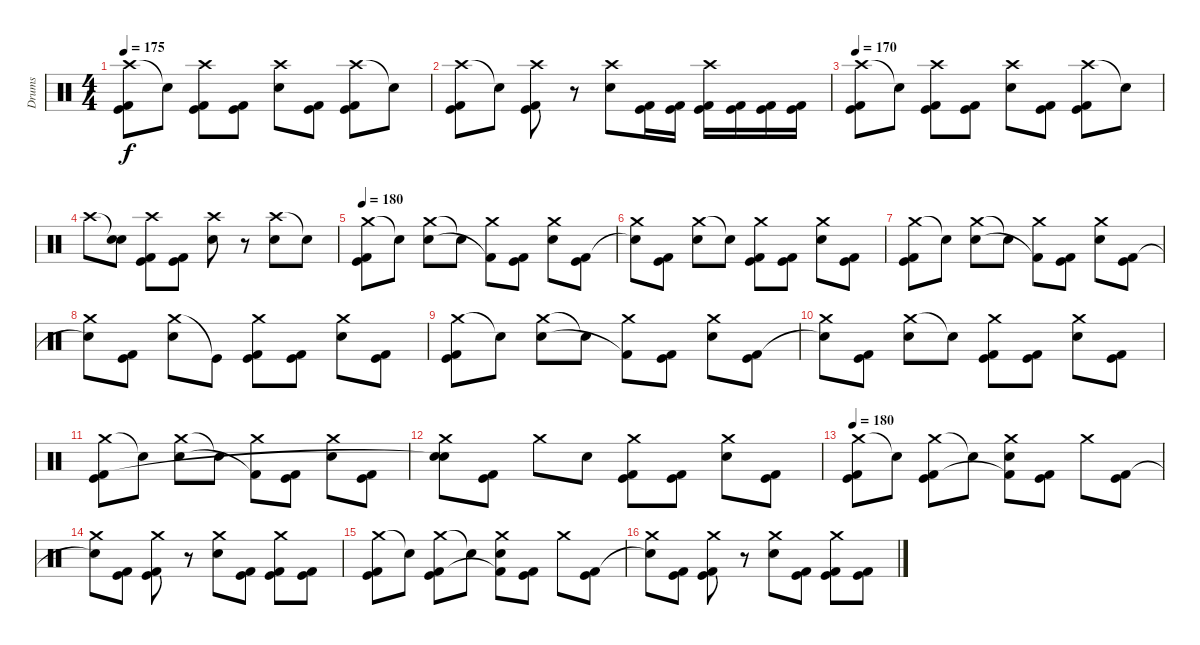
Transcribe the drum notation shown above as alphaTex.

\track ("Drums" "Drums") {instrument percussion}
\staff {score}
\articulation defaults
\ts (4 4)
\tempo 175
\clef neutral
\ks c
("Crash high (hit)" "Kick (hit)" "Kick (hit) 2").8{dy f} "Snare (hit)"{t}.8 ("Crash high (hit)" "Kick (hit)" "Kick (hit) 2").8 ("Kick (hit)" "Kick (hit) 2").8 ("Crash high (hit)" "Electric Snare (hit)").8 ("Kick (hit)" "Kick (hit) 2").8 ("Crash high (hit)" "Kick (hit)" "Kick (hit) 2").8 "Snare (hit)"{t}.8 |
("Crash high (hit)" "Kick (hit)" "Kick (hit) 2").8 "Snare (hit)"{t}.8 ("Crash high (hit)" "Kick (hit)" "Kick (hit) 2").8 r.8 ("Crash high (hit)" "Electric Snare (hit)").8 ("Kick (hit)" "Kick (hit) 2").16 ("Kick (hit)" "Kick (hit) 2").16 ("Crash high (hit)" "Kick (hit)" "Kick (hit) 2").16 ("Kick (hit)" "Kick (hit) 2").16 ("Kick (hit)" "Kick (hit) 2").16 ("Kick (hit)" "Kick (hit) 2").16 |
\tempo 175
\tempo 170
("Crash high (hit)" "Kick (hit)" "Kick (hit) 2").8 "Snare (hit)"{t}.8 ("Crash high (hit)" "Kick (hit)" "Kick (hit) 2").8 ("Kick (hit)" "Kick (hit) 2").8 ("Crash high (hit)" "Electric Snare (hit)").8 ("Kick (hit)" "Kick (hit) 2").8 ("Crash high (hit)" "Kick (hit)" "Kick (hit) 2").8 "Snare (hit)"{t}.8 |
"Crash high (hit)".8 ("Snare (hit)"{t} "Electric Snare (hit)").8 ("Crash high (hit)" "Kick (hit)" "Kick (hit) 2").8 ("Kick (hit)" "Kick (hit) 2").8 ("Crash high (hit)" "Electric Snare (hit)").8 r.8 ("Crash high (hit)" "Electric Snare (hit)").8 "Snare (hit)"{t}.8 |
\tempo 180
("Crash medium (hit)" "Kick (hit)" "Kick (hit) 2").8 "Snare (hit)"{t}.8 ("Crash medium (hit)" "Electric Snare (hit)").8 "Snare (hit)"{t}.8 ("Crash medium (hit)" "Kick (hit) 2"{t}).8 ("Kick (hit)" "Kick (hit) 2").8 ("Crash medium (hit)" "Electric Snare (hit)").8 ("Kick (hit)" "Kick (hit) 2").8 |
("Crash medium (hit)" "Snare (hit)"{t}).8 ("Kick (hit)" "Kick (hit) 2").8 ("Crash medium (hit)" "Electric Snare (hit)").8 "Snare (hit)"{t}.8 ("Crash medium (hit)" "Kick (hit)" "Kick (hit) 2").8 ("Kick (hit)" "Kick (hit) 2").8 ("Crash medium (hit)" "Electric Snare (hit)").8 ("Kick (hit)" "Kick (hit) 2").8 |
("Crash medium (hit)" "Kick (hit)" "Kick (hit) 2").8 "Snare (hit)"{t}.8 ("Crash medium (hit)" "Electric Snare (hit)").8 "Snare (hit)"{t}.8 ("Crash medium (hit)" "Kick (hit) 2"{t}).8 ("Kick (hit)" "Kick (hit) 2").8 ("Crash medium (hit)" "Electric Snare (hit)").8 ("Kick (hit)" "Kick (hit) 2").8 |
("Crash medium (hit)" "Snare (hit)"{t}).8 ("Kick (hit)" "Kick (hit) 2").8 ("Crash medium (hit)" "Electric Snare (hit)").8 "Kick (hit)"{t}.8 ("Crash medium (hit)" "Kick (hit)" "Kick (hit) 2").8 ("Kick (hit)" "Kick (hit) 2").8 ("Crash medium (hit)" "Electric Snare (hit)").8 ("Kick (hit)" "Kick (hit) 2").8 |
("Crash medium (hit)" "Kick (hit)" "Kick (hit) 2").8 "Snare (hit)"{t}.8 ("Crash medium (hit)" "Electric Snare (hit)").8 "Snare (hit)"{t}.8 ("Crash medium (hit)" "Kick (hit) 2"{t}).8 ("Kick (hit)" "Kick (hit) 2").8 ("Crash medium (hit)" "Electric Snare (hit)").8 ("Kick (hit)" "Kick (hit) 2").8 |
("Crash medium (hit)" "Snare (hit)"{t}).8 ("Kick (hit)" "Kick (hit) 2").8 ("Crash medium (hit)" "Electric Snare (hit)").8 "Snare (hit)"{t}.8 ("Crash medium (hit)" "Kick (hit)" "Kick (hit) 2").8 ("Kick (hit)" "Kick (hit) 2").8 ("Crash medium (hit)" "Electric Snare (hit)").8 ("Kick (hit)" "Kick (hit) 2").8 |
("Crash medium (hit)" "Kick (hit)" "Kick (hit) 2").8 "Snare (hit)"{t}.8 ("Crash medium (hit)" "Electric Snare (hit)").8 "Snare (hit)"{t}.8 ("Crash medium (hit)" "Kick (hit) 2"{t}).8 ("Kick (hit)" "Kick (hit) 2").8 ("Crash medium (hit)" "Electric Snare (hit)").8 ("Kick (hit)" "Kick (hit) 2").8 |
("Crash medium (hit)" "Electric Snare (hit)" "Snare (hit)"{t}).8 ("Kick (hit)" "Kick (hit) 2").8 "Crash medium (hit)".8 "Electric Snare (hit)".8 ("Crash medium (hit)" "Kick (hit)" "Kick (hit) 2").8 ("Kick (hit)" "Kick (hit) 2").8 ("Crash medium (hit)" "Electric Snare (hit)").8 ("Kick (hit)" "Kick (hit) 2").8 |
\tempo 180
("Crash medium (hit)" "Kick (hit)" "Kick (hit) 2").8 "Snare (hit)"{t}.8 ("Crash medium (hit)" "Kick (hit)" "Kick (hit) 2").8 "Snare (hit)"{t}.8 ("Crash medium (hit)" "Electric Snare (hit)" "Kick (hit) 2"{t}).8 ("Kick (hit)" "Kick (hit) 2").8 "Crash medium (hit)".8 ("Kick (hit)" "Kick (hit) 2").8 |
("Crash medium (hit)" "Snare (hit)"{t}).8 ("Kick (hit)" "Kick (hit) 2").8 ("Crash medium (hit)" "Kick (hit)" "Kick (hit) 2").8 r.8 ("Crash medium (hit)" "Electric Snare (hit)").8 ("Kick (hit)" "Kick (hit) 2").8 ("Crash medium (hit)" "Kick (hit)" "Kick (hit) 2").8 ("Kick (hit)" "Kick (hit) 2").8 |
("Crash medium (hit)" "Kick (hit)" "Kick (hit) 2").8 "Snare (hit)"{t}.8 ("Crash medium (hit)" "Kick (hit)" "Kick (hit) 2").8 "Snare (hit)"{t}.8 ("Crash medium (hit)" "Electric Snare (hit)" "Kick (hit) 2"{t}).8 ("Kick (hit)" "Kick (hit) 2").8 "Crash medium (hit)".8 ("Kick (hit)" "Kick (hit) 2").8 |
("Crash medium (hit)" "Snare (hit)"{t}).8 ("Kick (hit)" "Kick (hit) 2").8 ("Crash medium (hit)" "Kick (hit)" "Kick (hit) 2").8 r.8 ("Crash medium (hit)" "Electric Snare (hit)").8 ("Kick (hit)" "Kick (hit) 2").8 ("Crash medium (hit)" "Kick (hit)" "Kick (hit) 2").8 ("Kick (hit)" "Kick (hit) 2").8
